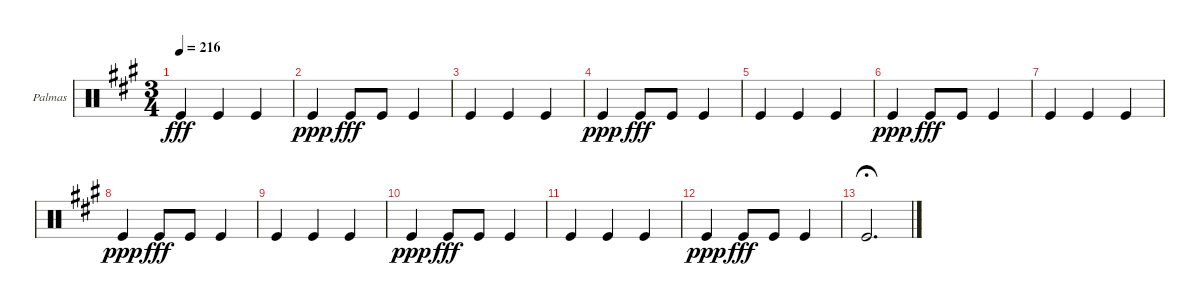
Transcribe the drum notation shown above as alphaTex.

\defaultSystemsLayout 4
\bracketExtendMode groupsimilarinstruments
\firstSystemTrackNameOrientation horizontal
\otherSystemsTrackNameOrientation horizontal
\track ("Palmas" "Palmas") {instrument percussion}
\staff {score}
\articulation defaults
\ts (3 4)
\tempo 216
\clef neutral
\ks a "Kick (hit)".4{dy fff} "Kick (hit)".4 "Kick (hit)".4
|
"Kick (hit)".4{dy ppp} "Kick (hit)".8{dy fff} "Kick (hit)".8 "Kick (hit)".4 |
"Kick (hit)".4 "Kick (hit)".4 "Kick (hit)".4 |
"Kick (hit)".4{dy ppp} "Kick (hit)".8{dy fff} "Kick (hit)".8 "Kick (hit)".4 |
"Kick (hit)".4 "Kick (hit)".4 "Kick (hit)".4 |
"Kick (hit)".4{dy ppp} "Kick (hit)".8{dy fff} "Kick (hit)".8 "Kick (hit)".4 |
"Kick (hit)".4 "Kick (hit)".4 "Kick (hit)".4 |
"Kick (hit)".4{dy ppp} "Kick (hit)".8{dy fff} "Kick (hit)".8 "Kick (hit)".4 |
"Kick (hit)".4 "Kick (hit)".4 "Kick (hit)".4 |
"Kick (hit)".4{dy ppp} "Kick (hit)".8{dy fff} "Kick (hit)".8 "Kick (hit)".4 |
"Kick (hit)".4 "Kick (hit)".4 "Kick (hit)".4 |
"Kick (hit)".4{dy ppp} "Kick (hit)".8{dy fff} "Kick (hit)".8 "Kick (hit)".4 |
"Kick (hit)".2{d fermata (medium 1)}
